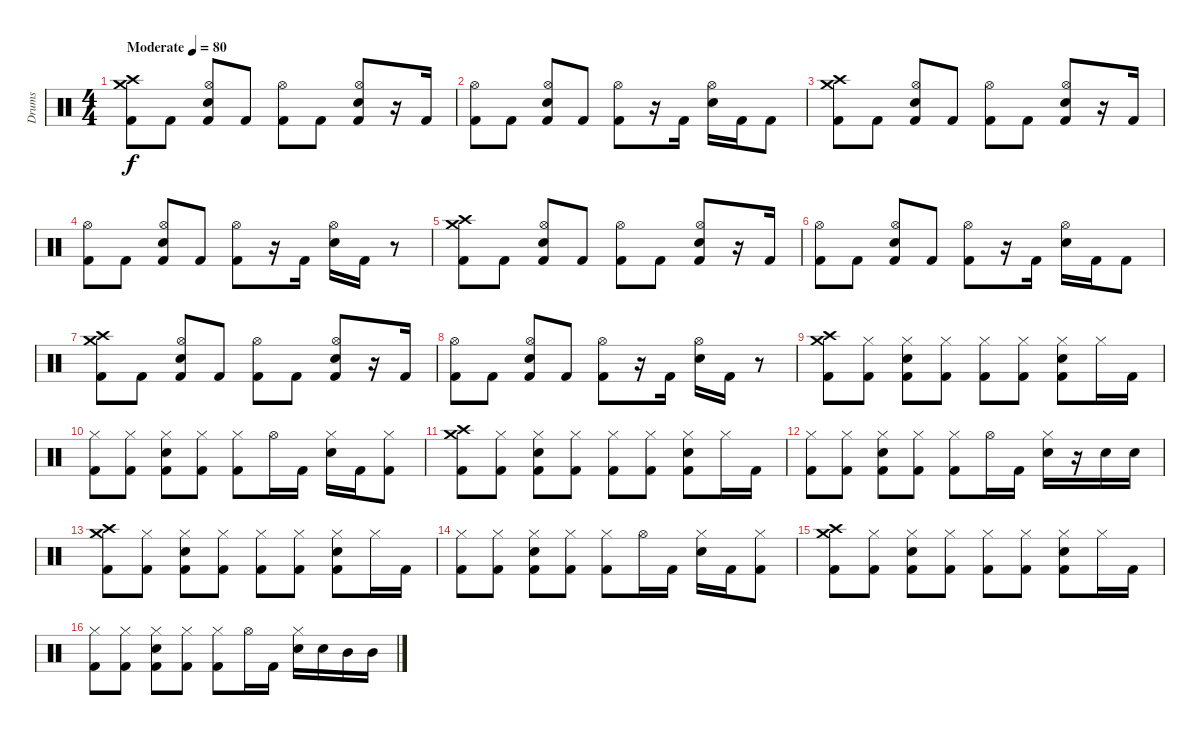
\track ("Drums" "Drums") {instrument percussion}
\staff {score}
\articulation defaults
\ts (4 4)
\tempo (80 "Moderate")
\clef neutral
\ks c
("Crash high (hit)" "Crash medium (hit)" "Kick (hit) 2").8{dy f} "Kick (hit) 2".8 ("Hi-Hat (open)" "Electric Snare (hit)" "Kick (hit) 2").8 "Kick (hit) 2".8 ("Hi-Hat (open)" "Kick (hit) 2").8 "Kick (hit) 2".8 ("Hi-Hat (open)" "Electric Snare (hit)" "Kick (hit) 2").8 r.16 "Kick (hit) 2".16 |
("Hi-Hat (open)" "Kick (hit) 2").8 "Kick (hit) 2".8 ("Hi-Hat (open)" "Electric Snare (hit)" "Kick (hit) 2").8 "Kick (hit) 2".8 ("Hi-Hat (open)" "Kick (hit) 2").8 r.16 "Kick (hit) 2".16 ("Hi-Hat (open)" "Electric Snare (hit)").16 "Kick (hit) 2".16 "Kick (hit) 2".8 |
("Crash high (hit)" "Crash medium (hit)" "Kick (hit) 2").8 "Kick (hit) 2".8 ("Hi-Hat (open)" "Electric Snare (hit)" "Kick (hit) 2").8 "Kick (hit) 2".8 ("Hi-Hat (open)" "Kick (hit) 2").8 "Kick (hit) 2".8 ("Hi-Hat (open)" "Electric Snare (hit)" "Kick (hit) 2").8 r.16 "Kick (hit) 2".16 |
("Hi-Hat (open)" "Kick (hit) 2").8 "Kick (hit) 2".8 ("Hi-Hat (open)" "Electric Snare (hit)" "Kick (hit) 2").8 "Kick (hit) 2".8 ("Hi-Hat (open)" "Kick (hit) 2").8 r.16 "Kick (hit) 2".16 ("Hi-Hat (open)" "Electric Snare (hit)").16 "Kick (hit) 2".16 r.8 |
("Crash high (hit)" "Crash medium (hit)" "Kick (hit) 2").8 "Kick (hit) 2".8 ("Hi-Hat (open)" "Electric Snare (hit)" "Kick (hit) 2").8 "Kick (hit) 2".8 ("Hi-Hat (open)" "Kick (hit) 2").8 "Kick (hit) 2".8 ("Hi-Hat (open)" "Electric Snare (hit)" "Kick (hit) 2").8 r.16 "Kick (hit) 2".16 |
("Hi-Hat (open)" "Kick (hit) 2").8 "Kick (hit) 2".8 ("Hi-Hat (open)" "Electric Snare (hit)" "Kick (hit) 2").8 "Kick (hit) 2".8 ("Hi-Hat (open)" "Kick (hit) 2").8 r.16 "Kick (hit) 2".16 ("Hi-Hat (open)" "Electric Snare (hit)").16 "Kick (hit) 2".16 "Kick (hit) 2".8 |
("Crash high (hit)" "Crash medium (hit)" "Kick (hit) 2").8 "Kick (hit) 2".8 ("Hi-Hat (open)" "Electric Snare (hit)" "Kick (hit) 2").8 "Kick (hit) 2".8 ("Hi-Hat (open)" "Kick (hit) 2").8 "Kick (hit) 2".8 ("Hi-Hat (open)" "Electric Snare (hit)" "Kick (hit) 2").8 r.16 "Kick (hit) 2".16 |
("Hi-Hat (open)" "Kick (hit) 2").8 "Kick (hit) 2".8 ("Hi-Hat (open)" "Electric Snare (hit)" "Kick (hit) 2").8 "Kick (hit) 2".8 ("Hi-Hat (open)" "Kick (hit) 2").8 r.16 "Kick (hit) 2".16 ("Hi-Hat (open)" "Electric Snare (hit)").16 "Kick (hit) 2".16 r.8 |
("Crash high (hit)" "Crash medium (hit)" "Kick (hit) 2").8 ("Hi-Hat (closed)" "Kick (hit) 2").8 ("Hi-Hat (closed)" "Electric Snare (hit)" "Kick (hit) 2").8 ("Hi-Hat (closed)" "Kick (hit) 2").8 ("Hi-Hat (closed)" "Kick (hit) 2").8 ("Hi-Hat (closed)" "Kick (hit) 2").8 ("Hi-Hat (closed)" "Electric Snare (hit)" "Kick (hit) 2").8 "Hi-Hat (closed)".16 "Kick (hit) 2".16 |
("Hi-Hat (closed)" "Kick (hit) 2").8 ("Hi-Hat (closed)" "Kick (hit) 2").8 ("Hi-Hat (closed)" "Electric Snare (hit)" "Kick (hit) 2").8 ("Hi-Hat (closed)" "Kick (hit) 2").8 ("Hi-Hat (closed)" "Kick (hit) 2").8 "Hi-Hat (open)".16 "Kick (hit) 2".16 ("Hi-Hat (closed)" "Electric Snare (hit)").16 "Kick (hit) 2".16 ("Hi-Hat (closed)" "Kick (hit) 2").8 |
("Crash high (hit)" "Crash medium (hit)" "Kick (hit) 2").8 ("Hi-Hat (closed)" "Kick (hit) 2").8 ("Hi-Hat (closed)" "Electric Snare (hit)" "Kick (hit) 2").8 ("Hi-Hat (closed)" "Kick (hit) 2").8 ("Hi-Hat (closed)" "Kick (hit) 2").8 ("Hi-Hat (closed)" "Kick (hit) 2").8 ("Hi-Hat (closed)" "Electric Snare (hit)" "Kick (hit) 2").8 "Hi-Hat (closed)".16 "Kick (hit) 2".16 |
("Hi-Hat (closed)" "Kick (hit) 2").8 ("Hi-Hat (closed)" "Kick (hit) 2").8 ("Hi-Hat (closed)" "Electric Snare (hit)" "Kick (hit) 2").8 ("Hi-Hat (closed)" "Kick (hit) 2").8 ("Hi-Hat (closed)" "Kick (hit) 2").8 "Hi-Hat (open)".16 "Kick (hit) 2".16 ("Hi-Hat (closed)" "Electric Snare (hit)").16 r.16 "Electric Snare (hit)".16 "Electric Snare (hit)".16 |
("Crash high (hit)" "Crash medium (hit)" "Kick (hit) 2").8 ("Hi-Hat (closed)" "Kick (hit) 2").8 ("Hi-Hat (closed)" "Electric Snare (hit)" "Kick (hit) 2").8 ("Hi-Hat (closed)" "Kick (hit) 2").8 ("Hi-Hat (closed)" "Kick (hit) 2").8 ("Hi-Hat (closed)" "Kick (hit) 2").8 ("Hi-Hat (closed)" "Electric Snare (hit)" "Kick (hit) 2").8 "Hi-Hat (closed)".16 "Kick (hit) 2".16 |
("Hi-Hat (closed)" "Kick (hit) 2").8 ("Hi-Hat (closed)" "Kick (hit) 2").8 ("Hi-Hat (closed)" "Electric Snare (hit)" "Kick (hit) 2").8 ("Hi-Hat (closed)" "Kick (hit) 2").8 ("Hi-Hat (closed)" "Kick (hit) 2").8 "Hi-Hat (open)".16 "Kick (hit) 2".16 ("Hi-Hat (closed)" "Electric Snare (hit)").16 "Kick (hit) 2".16 ("Hi-Hat (closed)" "Kick (hit) 2").8 |
("Crash high (hit)" "Crash medium (hit)" "Kick (hit) 2").8 ("Hi-Hat (closed)" "Kick (hit) 2").8 ("Hi-Hat (closed)" "Electric Snare (hit)" "Kick (hit) 2").8 ("Hi-Hat (closed)" "Kick (hit) 2").8 ("Hi-Hat (closed)" "Kick (hit) 2").8 ("Hi-Hat (closed)" "Kick (hit) 2").8 ("Hi-Hat (closed)" "Electric Snare (hit)" "Kick (hit) 2").8 "Hi-Hat (closed)".16 "Kick (hit) 2".16 |
("Hi-Hat (closed)" "Kick (hit) 2").8 ("Hi-Hat (closed)" "Kick (hit) 2").8 ("Hi-Hat (closed)" "Electric Snare (hit)" "Kick (hit) 2").8 ("Hi-Hat (closed)" "Kick (hit) 2").8 ("Hi-Hat (closed)" "Kick (hit) 2").8 "Hi-Hat (open)".16 "Kick (hit) 2".16 ("Hi-Hat (closed)" "Electric Snare (hit)").16 "Electric Snare (hit)".16 "Mid Tom (hit)".16 "Mid Tom (hit)".16
